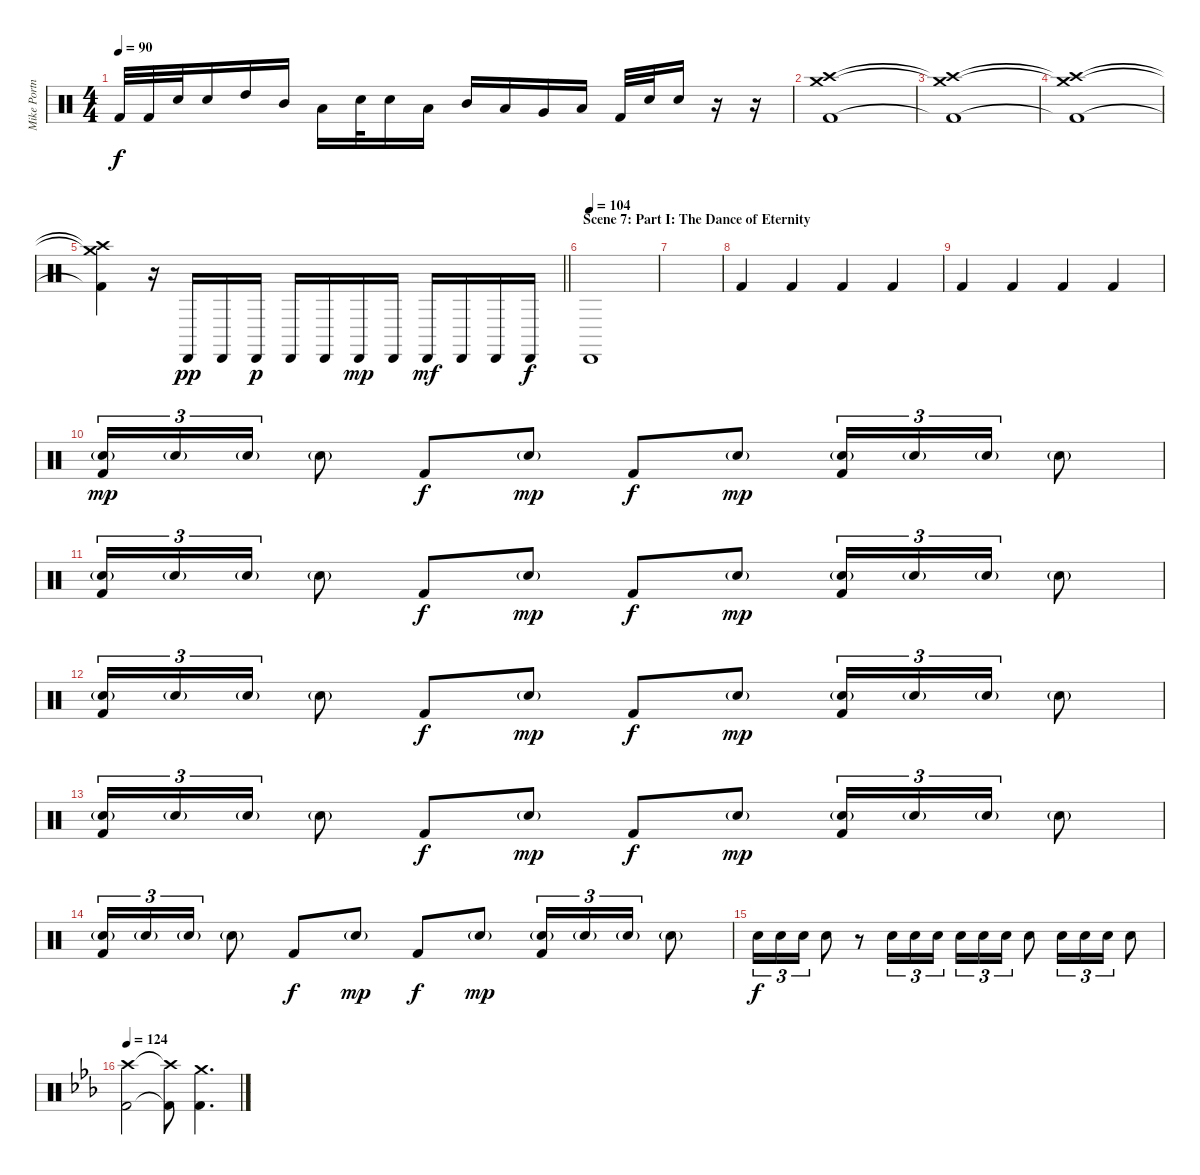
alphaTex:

\track ("Mike Portnoy" "Mike Portn") {instrument percussion}
\staff {score}
\articulation defaults
\ts (4 4)
\tempo 90
\clef neutral
\ks c "Kick (hit) 2".32{dy f} "Kick (hit) 2".32 "Snare (hit) 2".32 "Snare (hit) 2".16 "High Tom (hit)".16 "Mid Tom (hit)".16 "Low Tom (hit)".16 "Snare (hit) 2".32 "Snare (hit) 2".16 "Low Tom (hit)".16 "Mid Tom (hit)".16 "Low Tom (hit)".16 "Very Low Tom (hit)".16 "Low Floor Tom (hit)".16 "Kick (hit) 2".32 "Snare (hit) 2".32 "Snare (hit) 2".16
r.16 r.16 |
("Crash high (hit)" "Crash medium (hit)" "Kick (hit) 2").1 |
("Crash high (hit)"{t} "Crash medium (hit)"{t} "Kick (hit) 2"{t}).1 |
("Crash high (hit)"{t} "Crash medium (hit)"{t} "Kick (hit) 2"{t}).1 |
\barLineRight lightlight
("Crash high (hit)"{t} "Crash medium (hit)"{t} "Kick (hit) 2"{t}).4 r.16 "Cabasa (hit)".16{dy pp} "Cabasa (hit)".16 "Cabasa (hit)".16{dy p} "Cabasa (hit)".16 "Cabasa (hit)".16 "Cabasa (hit)".16{dy mp} "Cabasa (hit)".16 "Cabasa (hit)".16{dy mf} "Cabasa (hit)".16 "Cabasa (hit)".16 "Cabasa (hit)".16{dy f} |
\section ("" "Scene 7: Part I: The Dance of Eternity")
\tempo (104)
"Cabasa (hit)".1{volume 14} |
|
"Kick (hit) 2".4 "Kick (hit) 2".4 "Kick (hit) 2".4 "Kick (hit) 2".4 |
"Kick (hit) 2".4 "Kick (hit) 2".4 "Kick (hit) 2".4 "Kick (hit) 2".4 |
("Electric Snare (hit)"{g} "Kick (hit) 2").16{tu (3 2) dy mp} "Electric Snare (hit)"{g}.16{tu (3 2)} "Electric Snare (hit)"{g}.16{tu (3 2)} "Electric Snare (hit)"{g}.8 "Kick (hit) 2".8{dy f} "Electric Snare (hit)"{g}.8{dy mp} "Kick (hit) 2".8{dy f} "Electric Snare (hit)"{g}.8{dy mp} ("Electric Snare (hit)"{g} "Kick (hit) 2").16{tu (3 2)} "Electric Snare (hit)"{g}.16{tu (3 2)} "Electric Snare (hit)"{g}.16{tu (3 2)} "Electric Snare (hit)"{g}.8 |
("Electric Snare (hit)"{g} "Kick (hit) 2").16{tu (3 2)} "Electric Snare (hit)"{g}.16{tu (3 2)} "Electric Snare (hit)"{g}.16{tu (3 2)} "Electric Snare (hit)"{g}.8 "Kick (hit) 2".8{dy f} "Electric Snare (hit)"{g}.8{dy mp} "Kick (hit) 2".8{dy f} "Electric Snare (hit)"{g}.8{dy mp} ("Electric Snare (hit)"{g} "Kick (hit) 2").16{tu (3 2)} "Electric Snare (hit)"{g}.16{tu (3 2)} "Electric Snare (hit)"{g}.16{tu (3 2)} "Electric Snare (hit)"{g}.8 |
("Electric Snare (hit)"{g} "Kick (hit) 2").16{tu (3 2)} "Electric Snare (hit)"{g}.16{tu (3 2)} "Electric Snare (hit)"{g}.16{tu (3 2)} "Electric Snare (hit)"{g}.8 "Kick (hit) 2".8{dy f} "Electric Snare (hit)"{g}.8{dy mp} "Kick (hit) 2".8{dy f} "Electric Snare (hit)"{g}.8{dy mp} ("Electric Snare (hit)"{g} "Kick (hit) 2").16{tu (3 2)} "Electric Snare (hit)"{g}.16{tu (3 2)} "Electric Snare (hit)"{g}.16{tu (3 2)} "Electric Snare (hit)"{g}.8 |
("Electric Snare (hit)"{g} "Kick (hit) 2").16{tu (3 2)} "Electric Snare (hit)"{g}.16{tu (3 2)} "Electric Snare (hit)"{g}.16{tu (3 2)} "Electric Snare (hit)"{g}.8 "Kick (hit) 2".8{dy f} "Electric Snare (hit)"{g}.8{dy mp} "Kick (hit) 2".8{dy f} "Electric Snare (hit)"{g}.8{dy mp} ("Electric Snare (hit)"{g} "Kick (hit) 2").16{tu (3 2)} "Electric Snare (hit)"{g}.16{tu (3 2)} "Electric Snare (hit)"{g}.16{tu (3 2)} "Electric Snare (hit)"{g}.8 |
("Electric Snare (hit)"{g} "Kick (hit) 2").16{tu (3 2)} "Electric Snare (hit)"{g}.16{tu (3 2)} "Electric Snare (hit)"{g}.16{tu (3 2)} "Electric Snare (hit)"{g}.8 "Kick (hit) 2".8{dy f} "Electric Snare (hit)"{g}.8{dy mp} "Kick (hit) 2".8{dy f} "Electric Snare (hit)"{g}.8{dy mp} ("Electric Snare (hit)"{g} "Kick (hit) 2").16{tu (3 2)} "Electric Snare (hit)"{g}.16{tu (3 2)} "Electric Snare (hit)"{g}.16{tu (3 2)} "Electric Snare (hit)"{g}.8 |
"Snare (hit) 2".16{tu (3 2) dy f} "Snare (hit) 2".16{tu (3 2)} "Snare (hit) 2".16{tu (3 2)} "Snare (hit) 2".8 r.8 "Snare (hit) 2".16{tu (3 2)} "Snare (hit) 2".16{tu (3 2)} "Snare (hit) 2".16{tu (3 2)} "Snare (hit) 2".16{tu (3 2)} "Snare (hit) 2".16{tu (3 2)} "Snare (hit) 2".16{tu (3 2)} "Snare (hit) 2".8 "Snare (hit) 2".16{tu (3 2)} "Snare (hit) 2".16{tu (3 2)} "Snare (hit) 2".16{tu (3 2)} "Snare (hit) 2".8 |
\tempo 124
\ks eb
("Crash high (hit)" "Kick (hit) 2").2 ("Crash high (hit)"{t} "Kick (hit) 2"{t}).8 ("Crash medium (hit)" "Kick (hit) 2").4{d}
